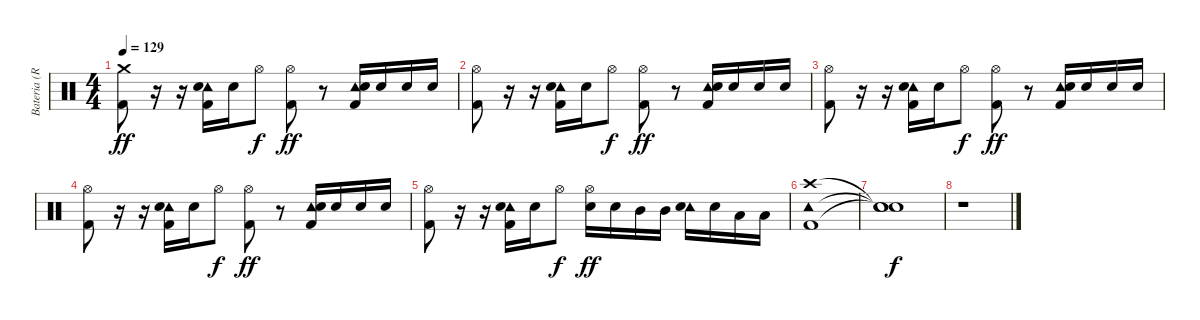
\track ("Bateria (Roy)" "Bateria (R") {instrument percussion}
\staff {score}
\articulation defaults
\ts (4 4)
\tempo 129
\clef neutral
\ks c
("Crash medium (hit)" "Kick (hit) 2").8{dy ff} r.16 r.16 ("Tambourine (hit)" "Electric Snare (hit)" "Kick (hit) 2").16 "Electric Snare (hit)".16 "Hi-Hat (open)".8{dy f} ("Hi-Hat (open)" "Kick (hit) 2").8{dy ff} r.8 ("Tambourine (hit)" "Electric Snare (hit)" "Kick (hit) 2").16 "Electric Snare (hit)".16 "Electric Snare (hit)".16 "Electric Snare (hit)".16 |
("Hi-Hat (open)" "Kick (hit) 2").8 r.16 r.16 ("Tambourine (hit)" "Electric Snare (hit)" "Kick (hit) 2").16 "Electric Snare (hit)".16 "Hi-Hat (open)".8{dy f} ("Hi-Hat (open)" "Kick (hit) 2").8{dy ff} r.8 ("Tambourine (hit)" "Electric Snare (hit)" "Kick (hit) 2").16 "Electric Snare (hit)".16 "Electric Snare (hit)".16 "Electric Snare (hit)".16 |
("Hi-Hat (open)" "Kick (hit) 2").8 r.16 r.16 ("Tambourine (hit)" "Electric Snare (hit)" "Kick (hit) 2").16 "Electric Snare (hit)".16 "Hi-Hat (open)".8{dy f} ("Hi-Hat (open)" "Kick (hit) 2").8{dy ff} r.8 ("Tambourine (hit)" "Electric Snare (hit)" "Kick (hit) 2").16 "Electric Snare (hit)".16 "Electric Snare (hit)".16 "Electric Snare (hit)".16 |
("Hi-Hat (open)" "Kick (hit) 2").8 r.16 r.16 ("Tambourine (hit)" "Electric Snare (hit)" "Kick (hit) 2").16 "Electric Snare (hit)".16 "Hi-Hat (open)".8{dy f} ("Hi-Hat (open)" "Kick (hit) 2").8{dy ff} r.8 ("Tambourine (hit)" "Electric Snare (hit)" "Kick (hit) 2").16 "Electric Snare (hit)".16 "Electric Snare (hit)".16 "Electric Snare (hit)".16 |
("Hi-Hat (open)" "Kick (hit) 2").8 r.16 r.16 ("Tambourine (hit)" "Electric Snare (hit)" "Kick (hit) 2").16 "Electric Snare (hit)".16 "Hi-Hat (open)".8{dy f} ("Hi-Hat (open)" "Electric Snare (hit)").16{dy ff} "Electric Snare (hit)".16 "Mid Tom (hit)".16 "Mid Tom (hit)".16 ("Tambourine (hit)" "Electric Snare (hit)").16 "Electric Snare (hit)".16 "Low Tom (hit)".16 "Low Tom (hit)".16 |
("Crash high (hit)" "Tambourine (hit)" "Kick (hit) 2").1 |
("Snare (hit)"{t} "Snare (hit)"{t} "Snare (hit)"{t}).1{dy f} |
r.1
